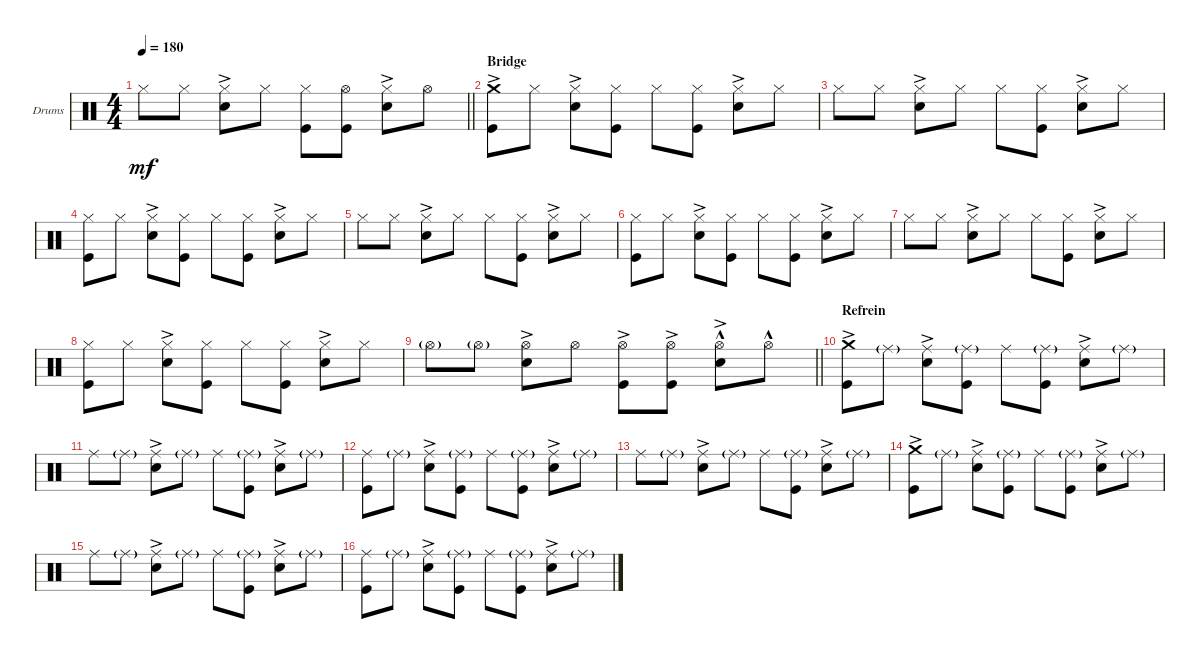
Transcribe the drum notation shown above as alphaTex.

\defaultSystemsLayout 4
\bracketExtendMode groupsimilarinstruments
\firstSystemTrackNameOrientation horizontal
\otherSystemsTrackNameOrientation horizontal
\track ("Will - Drumkit" "Drums") {instrument percussion}
\staff {score}
\articulation defaults
\ts (4 4)
\tempo 180
\clef neutral
\barLineRight lightlight
\ks c "Hi-Hat (closed)".8{dy mf} "Hi-Hat (closed)".8
("Hi-Hat (closed)" "Snare (hit) 2"{ac}).8 "Hi-Hat (closed)".8 ("Hi-Hat (closed)" "Kick (hit)").8 ("Hi-Hat (open)" "Kick (hit)").8 ("Hi-Hat (closed)" "Snare (hit) 2"{ac}).8 "Hi-Hat (open)".8 |
\section ("" "Bridge ")
("Kick (hit)" "Crash medium (hit)"{ac}).8 "Hi-Hat (closed)".8 ("Hi-Hat (closed)" "Snare (hit) 2"{ac}).8 ("Hi-Hat (closed)" "Kick (hit)").8 "Hi-Hat (closed)".8 ("Hi-Hat (closed)" "Kick (hit)").8 ("Hi-Hat (closed)" "Snare (hit) 2"{ac}).8 "Hi-Hat (closed)".8 |
"Hi-Hat (closed)".8 "Hi-Hat (closed)".8 ("Hi-Hat (closed)" "Snare (hit) 2"{ac}).8 "Hi-Hat (closed)".8 "Hi-Hat (closed)".8 ("Hi-Hat (closed)" "Kick (hit)").8 ("Hi-Hat (closed)" "Snare (hit) 2"{ac}).8 "Hi-Hat (closed)".8 |
("Kick (hit)" "Hi-Hat (closed)").8 "Hi-Hat (closed)".8 ("Hi-Hat (closed)" "Snare (hit) 2"{ac}).8 ("Hi-Hat (closed)" "Kick (hit)").8 "Hi-Hat (closed)".8 ("Hi-Hat (closed)" "Kick (hit)").8 ("Hi-Hat (closed)" "Snare (hit) 2"{ac}).8 "Hi-Hat (closed)".8 |
"Hi-Hat (closed)".8 "Hi-Hat (closed)".8 ("Hi-Hat (closed)" "Snare (hit) 2"{ac}).8 "Hi-Hat (closed)".8 "Hi-Hat (closed)".8 ("Hi-Hat (closed)" "Kick (hit)").8 ("Hi-Hat (closed)" "Snare (hit) 2"{ac}).8 "Hi-Hat (closed)".8 |
("Kick (hit)" "Hi-Hat (closed)").8 "Hi-Hat (closed)".8 ("Hi-Hat (closed)" "Snare (hit) 2"{ac}).8 ("Hi-Hat (closed)" "Kick (hit)").8 "Hi-Hat (closed)".8 ("Hi-Hat (closed)" "Kick (hit)").8 ("Hi-Hat (closed)" "Snare (hit) 2"{ac}).8 "Hi-Hat (closed)".8 |
"Hi-Hat (closed)".8 "Hi-Hat (closed)".8 ("Hi-Hat (closed)" "Snare (hit) 2"{ac}).8 "Hi-Hat (closed)".8 "Hi-Hat (closed)".8 ("Hi-Hat (closed)" "Kick (hit)").8 ("Hi-Hat (closed)" "Snare (hit) 2"{ac}).8 "Hi-Hat (closed)".8 |
("Kick (hit)" "Hi-Hat (closed)").8 "Hi-Hat (closed)".8 ("Hi-Hat (closed)" "Snare (hit) 2"{ac}).8 ("Hi-Hat (closed)" "Kick (hit)").8 "Hi-Hat (closed)".8 ("Hi-Hat (closed)" "Kick (hit)").8 ("Hi-Hat (closed)" "Snare (hit) 2"{ac}).8 "Hi-Hat (closed)".8 |
\barLineRight lightlight "Hi-Hat (open)"{g}.8 "Hi-Hat (open)"{g}.8
("Hi-Hat (open)" "Snare (hit) 2"{ac}).8 "Hi-Hat (open)".8 ("Hi-Hat (open)"{ac} "Kick (hit)").8 ("Hi-Hat (open)"{ac} "Kick (hit)").8 ("Hi-Hat (open)"{hac} "Snare (hit) 2"{ac}).8 "Hi-Hat (open)"{hac}.8 |
\section ("" "Refrein")
("Crash medium (hit)"{ac} "Kick (hit)").8 "Ride (middle)"{g}.8 ("Ride (middle)" "Snare (hit) 2"{ac}).8 ("Ride (middle)"{g} "Kick (hit)").8 "Ride (middle)".8 ("Ride (middle)"{g} "Kick (hit)").8 ("Ride (middle)" "Snare (hit) 2"{ac}).8 "Ride (middle)"{g}.8 |
"Ride (middle)".8 "Ride (middle)"{g}.8 ("Ride (middle)" "Snare (hit) 2"{ac}).8 "Ride (middle)"{g}.8 "Ride (middle)".8 ("Ride (middle)"{g} "Kick (hit)").8 ("Ride (middle)" "Snare (hit) 2"{ac}).8 "Ride (middle)"{g}.8 |
("Kick (hit)" "Ride (middle)").8 "Ride (middle)"{g}.8 ("Ride (middle)" "Snare (hit) 2"{ac}).8 ("Ride (middle)"{g} "Kick (hit)").8 "Ride (middle)".8 ("Ride (middle)"{g} "Kick (hit)").8 ("Ride (middle)" "Snare (hit) 2"{ac}).8 "Ride (middle)"{g}.8 |
"Ride (middle)".8 "Ride (middle)"{g}.8 ("Ride (middle)" "Snare (hit) 2"{ac}).8 "Ride (middle)"{g}.8 "Ride (middle)".8 ("Ride (middle)"{g} "Kick (hit)").8 ("Ride (middle)" "Snare (hit) 2"{ac}).8 "Ride (middle)"{g}.8 |
("Crash medium (hit)"{ac} "Kick (hit)").8 "Ride (middle)"{g}.8 ("Ride (middle)" "Snare (hit) 2"{ac}).8 ("Ride (middle)"{g} "Kick (hit)").8 "Ride (middle)".8 ("Ride (middle)"{g} "Kick (hit)").8 ("Ride (middle)" "Snare (hit) 2"{ac}).8 "Ride (middle)"{g}.8 |
"Ride (middle)".8 "Ride (middle)"{g}.8 ("Ride (middle)" "Snare (hit) 2"{ac}).8 "Ride (middle)"{g}.8 "Ride (middle)".8 ("Ride (middle)"{g} "Kick (hit)").8 ("Ride (middle)" "Snare (hit) 2"{ac}).8 "Ride (middle)"{g}.8 |
("Kick (hit)" "Ride (middle)").8 "Ride (middle)"{g}.8 ("Ride (middle)" "Snare (hit) 2"{ac}).8 ("Ride (middle)"{g} "Kick (hit)").8 "Ride (middle)".8 ("Ride (middle)"{g} "Kick (hit)").8 ("Ride (middle)" "Snare (hit) 2"{ac}).8 "Ride (middle)"{g}.8
